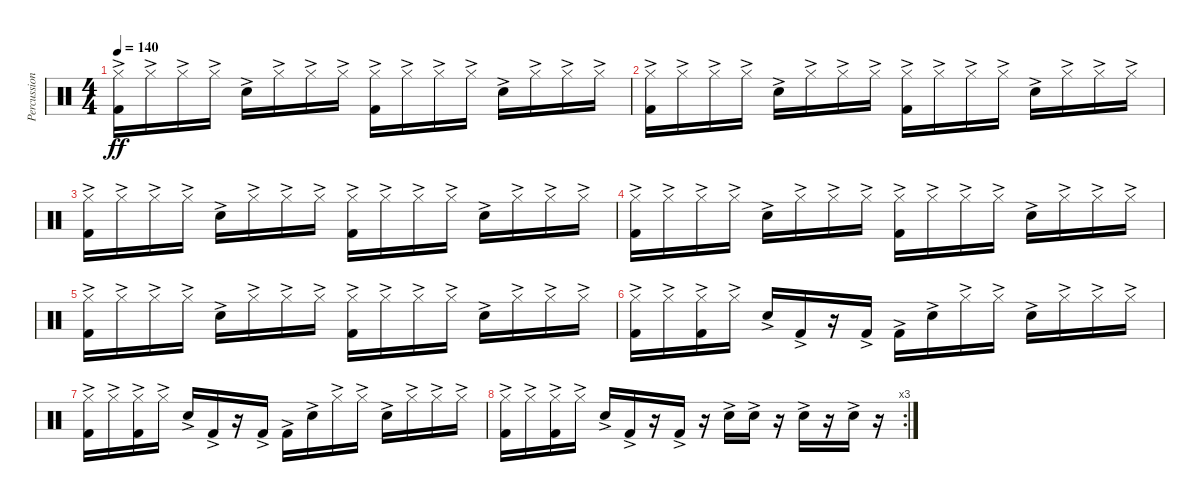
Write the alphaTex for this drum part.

\track ("Percussion" "Percussion") {instrument percussion}
\staff {score}
\articulation defaults
\ts (4 4)
\tempo 140
\clef neutral
\ks c
("Hi-Hat (closed)"{ac} "Kick (hit) 2"{ac}).16{dy ff} "Hi-Hat (closed)"{ac}.16 "Hi-Hat (closed)"{ac}.16 "Hi-Hat (closed)"{ac}.16 "Snare (hit) 2"{ac}.16 "Hi-Hat (closed)"{ac}.16 "Hi-Hat (closed)"{ac}.16 "Hi-Hat (closed)"{ac}.16 ("Hi-Hat (closed)"{ac} "Kick (hit) 2"{ac}).16 "Hi-Hat (closed)"{ac}.16 "Hi-Hat (closed)"{ac}.16 "Hi-Hat (closed)"{ac}.16 "Snare (hit) 2"{ac}.16 "Hi-Hat (closed)"{ac}.16 "Hi-Hat (closed)"{ac}.16 "Hi-Hat (closed)"{ac}.16 |
("Hi-Hat (closed)"{ac} "Kick (hit) 2"{ac}).16 "Hi-Hat (closed)"{ac}.16 "Hi-Hat (closed)"{ac}.16 "Hi-Hat (closed)"{ac}.16 "Snare (hit) 2"{ac}.16 "Hi-Hat (closed)"{ac}.16 "Hi-Hat (closed)"{ac}.16 "Hi-Hat (closed)"{ac}.16 ("Hi-Hat (closed)"{ac} "Kick (hit) 2"{ac}).16 "Hi-Hat (closed)"{ac}.16 "Hi-Hat (closed)"{ac}.16 "Hi-Hat (closed)"{ac}.16 "Snare (hit) 2"{ac}.16 "Hi-Hat (closed)"{ac}.16 "Hi-Hat (closed)"{ac}.16 "Hi-Hat (closed)"{ac}.16 |
("Hi-Hat (closed)"{ac} "Kick (hit) 2"{ac}).16 "Hi-Hat (closed)"{ac}.16 "Hi-Hat (closed)"{ac}.16 "Hi-Hat (closed)"{ac}.16 "Snare (hit) 2"{ac}.16 "Hi-Hat (closed)"{ac}.16 "Hi-Hat (closed)"{ac}.16 "Hi-Hat (closed)"{ac}.16 ("Hi-Hat (closed)"{ac} "Kick (hit) 2"{ac}).16 "Hi-Hat (closed)"{ac}.16 "Hi-Hat (closed)"{ac}.16 "Hi-Hat (closed)"{ac}.16 "Snare (hit) 2"{ac}.16 "Hi-Hat (closed)"{ac}.16 "Hi-Hat (closed)"{ac}.16 "Hi-Hat (closed)"{ac}.16 |
("Hi-Hat (closed)"{ac} "Kick (hit) 2"{ac}).16 "Hi-Hat (closed)"{ac}.16 "Hi-Hat (closed)"{ac}.16 "Hi-Hat (closed)"{ac}.16 "Snare (hit) 2"{ac}.16 "Hi-Hat (closed)"{ac}.16 "Hi-Hat (closed)"{ac}.16 "Hi-Hat (closed)"{ac}.16 ("Hi-Hat (closed)"{ac} "Kick (hit) 2"{ac}).16 "Hi-Hat (closed)"{ac}.16 "Hi-Hat (closed)"{ac}.16 "Hi-Hat (closed)"{ac}.16 "Snare (hit) 2"{ac}.16 "Hi-Hat (closed)"{ac}.16 "Hi-Hat (closed)"{ac}.16 "Hi-Hat (closed)"{ac}.16 |
("Hi-Hat (closed)"{ac} "Kick (hit) 2"{ac}).16 "Hi-Hat (closed)"{ac}.16 "Hi-Hat (closed)"{ac}.16 "Hi-Hat (closed)"{ac}.16 "Snare (hit) 2"{ac}.16 "Hi-Hat (closed)"{ac}.16 "Hi-Hat (closed)"{ac}.16 "Hi-Hat (closed)"{ac}.16 ("Hi-Hat (closed)"{ac} "Kick (hit) 2"{ac}).16 "Hi-Hat (closed)"{ac}.16 "Hi-Hat (closed)"{ac}.16 "Hi-Hat (closed)"{ac}.16 "Snare (hit) 2"{ac}.16 "Hi-Hat (closed)"{ac}.16 "Hi-Hat (closed)"{ac}.16 "Hi-Hat (closed)"{ac}.16 |
("Hi-Hat (closed)"{ac} "Kick (hit) 2"{ac}).16 "Hi-Hat (closed)"{ac}.16 ("Hi-Hat (closed)"{ac} "Kick (hit) 2"{ac}).16 "Hi-Hat (closed)"{ac}.16 "Snare (hit) 2"{ac}.16 "Kick (hit) 2"{ac}.16 r.16 "Kick (hit) 2"{ac}.16 "Kick (hit) 2"{ac}.16 "Snare (hit) 2"{ac}.16 "Hi-Hat (closed)"{ac}.16 "Hi-Hat (closed)"{ac}.16 "Snare (hit) 2"{ac}.16 "Hi-Hat (closed)"{ac}.16 "Hi-Hat (closed)"{ac}.16 "Hi-Hat (closed)"{ac}.16 |
("Hi-Hat (closed)"{ac} "Kick (hit) 2"{ac}).16 "Hi-Hat (closed)"{ac}.16 ("Hi-Hat (closed)"{ac} "Kick (hit) 2"{ac}).16 "Hi-Hat (closed)"{ac}.16 "Snare (hit) 2"{ac}.16 "Kick (hit) 2"{ac}.16 r.16 "Kick (hit) 2"{ac}.16 "Kick (hit) 2"{ac}.16 "Snare (hit) 2"{ac}.16 "Hi-Hat (closed)"{ac}.16 "Hi-Hat (closed)"{ac}.16 "Snare (hit) 2"{ac}.16 "Hi-Hat (closed)"{ac}.16 "Hi-Hat (closed)"{ac}.16 "Hi-Hat (closed)"{ac}.16 |
\rc 3
("Hi-Hat (closed)"{ac} "Kick (hit) 2"{ac}).16 "Hi-Hat (closed)"{ac}.16 ("Hi-Hat (closed)"{ac} "Kick (hit) 2"{ac}).16 "Hi-Hat (closed)"{ac}.16 "Snare (hit) 2"{ac}.16 "Kick (hit) 2"{ac}.16 r.16 "Kick (hit) 2"{ac}.16 r.16 "Snare (hit) 2"{ac}.16 "Snare (hit) 2"{ac}.16 r.16 "Snare (hit) 2"{ac}.16 r.16 "Snare (hit) 2"{ac}.16 r.16
